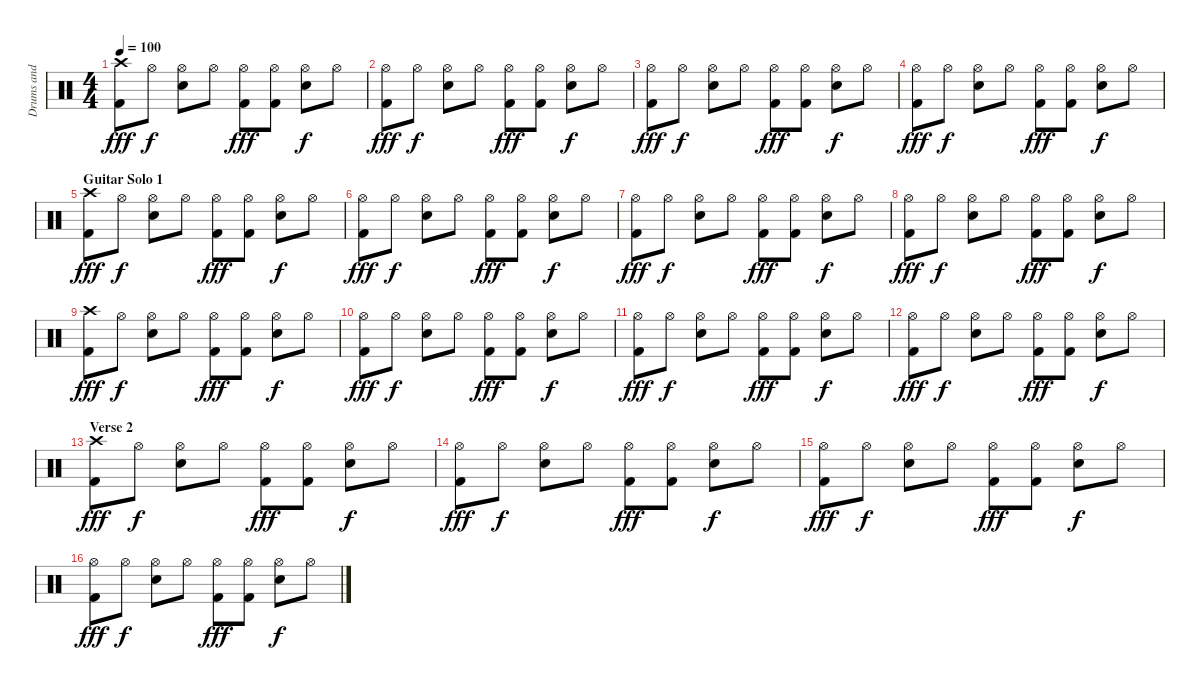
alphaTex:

\track ("Drums and Percussion" "Drums and ") {instrument percussion}
\staff {score}
\articulation defaults
\ts (4 4)
\tempo 100
\clef neutral
\ks c
("Crash high (hit)" "Kick (hit) 2").8{dy fff} "Hi-Hat (open)".8{dy f} ("Hi-Hat (open)" "Snare (hit) 2").8 "Hi-Hat (open)".8 ("Hi-Hat (open)" "Kick (hit) 2").8{dy fff} ("Hi-Hat (open)" "Kick (hit) 2").8 ("Hi-Hat (open)" "Snare (hit) 2").8{dy f} "Hi-Hat (open)".8 |
("Hi-Hat (open)" "Kick (hit) 2").8{dy fff} "Hi-Hat (open)".8{dy f} ("Hi-Hat (open)" "Snare (hit) 2").8 "Hi-Hat (open)".8 ("Hi-Hat (open)" "Kick (hit) 2").8{dy fff} ("Hi-Hat (open)" "Kick (hit) 2").8 ("Hi-Hat (open)" "Snare (hit) 2").8{dy f} "Hi-Hat (open)".8 |
("Hi-Hat (open)" "Kick (hit) 2").8{dy fff} "Hi-Hat (open)".8{dy f} ("Hi-Hat (open)" "Snare (hit) 2").8 "Hi-Hat (open)".8 ("Hi-Hat (open)" "Kick (hit) 2").8{dy fff} ("Hi-Hat (open)" "Kick (hit) 2").8 ("Hi-Hat (open)" "Snare (hit) 2").8{dy f} "Hi-Hat (open)".8 |
("Hi-Hat (open)" "Kick (hit) 2").8{dy fff} "Hi-Hat (open)".8{dy f} ("Hi-Hat (open)" "Snare (hit) 2").8 "Hi-Hat (open)".8 ("Hi-Hat (open)" "Kick (hit) 2").8{dy fff} ("Hi-Hat (open)" "Kick (hit) 2").8 ("Hi-Hat (open)" "Snare (hit) 2").8{dy f} "Hi-Hat (open)".8 |
\section ("" "Guitar Solo 1")
("Crash high (hit)" "Kick (hit) 2").8{dy fff} "Hi-Hat (open)".8{dy f} ("Hi-Hat (open)" "Snare (hit) 2").8 "Hi-Hat (open)".8 ("Hi-Hat (open)" "Kick (hit) 2").8{dy fff} ("Hi-Hat (open)" "Kick (hit) 2").8 ("Hi-Hat (open)" "Snare (hit) 2").8{dy f} "Hi-Hat (open)".8 |
("Hi-Hat (open)" "Kick (hit) 2").8{dy fff} "Hi-Hat (open)".8{dy f} ("Hi-Hat (open)" "Snare (hit) 2").8 "Hi-Hat (open)".8 ("Hi-Hat (open)" "Kick (hit) 2").8{dy fff} ("Hi-Hat (open)" "Kick (hit) 2").8 ("Hi-Hat (open)" "Snare (hit) 2").8{dy f} "Hi-Hat (open)".8 |
("Hi-Hat (open)" "Kick (hit) 2").8{dy fff} "Hi-Hat (open)".8{dy f} ("Hi-Hat (open)" "Snare (hit) 2").8 "Hi-Hat (open)".8 ("Hi-Hat (open)" "Kick (hit) 2").8{dy fff} ("Hi-Hat (open)" "Kick (hit) 2").8 ("Hi-Hat (open)" "Snare (hit) 2").8{dy f} "Hi-Hat (open)".8 |
("Hi-Hat (open)" "Kick (hit) 2").8{dy fff} "Hi-Hat (open)".8{dy f} ("Hi-Hat (open)" "Snare (hit) 2").8 "Hi-Hat (open)".8 ("Hi-Hat (open)" "Kick (hit) 2").8{dy fff} ("Hi-Hat (open)" "Kick (hit) 2").8 ("Hi-Hat (open)" "Snare (hit) 2").8{dy f} "Hi-Hat (open)".8 |
("Crash high (hit)" "Kick (hit) 2").8{dy fff} "Hi-Hat (open)".8{dy f} ("Hi-Hat (open)" "Snare (hit) 2").8 "Hi-Hat (open)".8 ("Hi-Hat (open)" "Kick (hit) 2").8{dy fff} ("Hi-Hat (open)" "Kick (hit) 2").8 ("Hi-Hat (open)" "Snare (hit) 2").8{dy f} "Hi-Hat (open)".8 |
("Hi-Hat (open)" "Kick (hit) 2").8{dy fff} "Hi-Hat (open)".8{dy f} ("Hi-Hat (open)" "Snare (hit) 2").8 "Hi-Hat (open)".8 ("Hi-Hat (open)" "Kick (hit) 2").8{dy fff} ("Hi-Hat (open)" "Kick (hit) 2").8 ("Hi-Hat (open)" "Snare (hit) 2").8{dy f} "Hi-Hat (open)".8 |
("Hi-Hat (open)" "Kick (hit) 2").8{dy fff} "Hi-Hat (open)".8{dy f} ("Hi-Hat (open)" "Snare (hit) 2").8 "Hi-Hat (open)".8 ("Hi-Hat (open)" "Kick (hit) 2").8{dy fff} ("Hi-Hat (open)" "Kick (hit) 2").8 ("Hi-Hat (open)" "Snare (hit) 2").8{dy f} "Hi-Hat (open)".8 |
("Hi-Hat (open)" "Kick (hit) 2").8{dy fff} "Hi-Hat (open)".8{dy f} ("Hi-Hat (open)" "Snare (hit) 2").8 "Hi-Hat (open)".8 ("Hi-Hat (open)" "Kick (hit) 2").8{dy fff} ("Hi-Hat (open)" "Kick (hit) 2").8 ("Hi-Hat (open)" "Snare (hit) 2").8{dy f} "Hi-Hat (open)".8 |
\section ("" "Verse 2")
("Crash high (hit)" "Kick (hit) 2").8{dy fff} "Hi-Hat (open)".8{dy f} ("Hi-Hat (open)" "Snare (hit) 2").8 "Hi-Hat (open)".8 ("Hi-Hat (open)" "Kick (hit) 2").8{dy fff} ("Hi-Hat (open)" "Kick (hit) 2").8 ("Hi-Hat (open)" "Snare (hit) 2").8{dy f} "Hi-Hat (open)".8 |
("Hi-Hat (open)" "Kick (hit) 2").8{dy fff} "Hi-Hat (open)".8{dy f} ("Hi-Hat (open)" "Snare (hit) 2").8 "Hi-Hat (open)".8 ("Hi-Hat (open)" "Kick (hit) 2").8{dy fff} ("Hi-Hat (open)" "Kick (hit) 2").8 ("Hi-Hat (open)" "Snare (hit) 2").8{dy f} "Hi-Hat (open)".8 |
("Hi-Hat (open)" "Kick (hit) 2").8{dy fff} "Hi-Hat (open)".8{dy f} ("Hi-Hat (open)" "Snare (hit) 2").8 "Hi-Hat (open)".8 ("Hi-Hat (open)" "Kick (hit) 2").8{dy fff} ("Hi-Hat (open)" "Kick (hit) 2").8 ("Hi-Hat (open)" "Snare (hit) 2").8{dy f} "Hi-Hat (open)".8 |
("Hi-Hat (open)" "Kick (hit) 2").8{dy fff} "Hi-Hat (open)".8{dy f} ("Hi-Hat (open)" "Snare (hit) 2").8 "Hi-Hat (open)".8 ("Hi-Hat (open)" "Kick (hit) 2").8{dy fff} ("Hi-Hat (open)" "Kick (hit) 2").8 ("Hi-Hat (open)" "Snare (hit) 2").8{dy f} "Hi-Hat (open)".8
